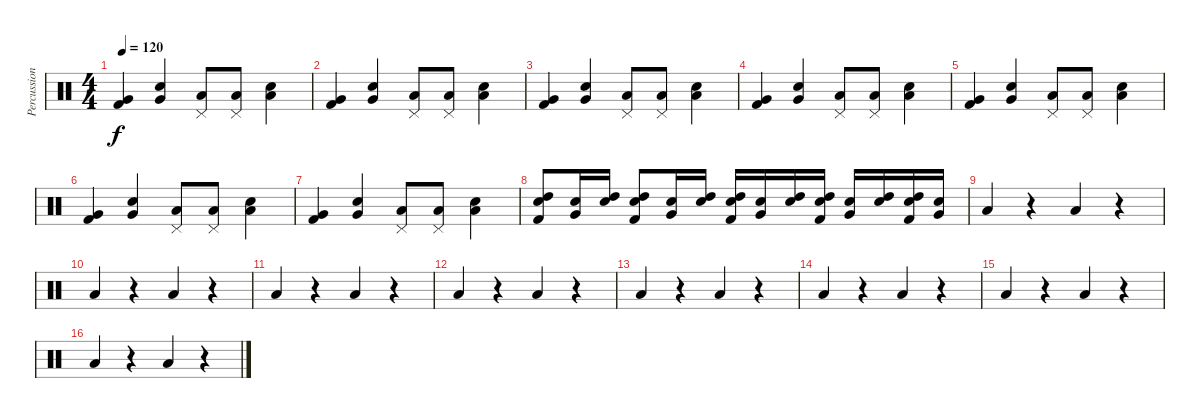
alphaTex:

\track ("Percussion" "Percussion") {instrument percussion}
\staff {score}
\articulation defaults
\ts (4 4)
\tempo 120
\clef neutral
\ks c
("Very Low Tom (hit)" "Kick (hit) 2").4{dy f} ("Very Low Tom (hit)" "Snare (hit) 2").4 ("Pedal Hi-Hat (hit)" "Low Tom (hit)").8 ("Pedal Hi-Hat (hit)" "Low Tom (hit)").8 ("Low Tom (hit)" "Snare (hit) 2").4 |
("Very Low Tom (hit)" "Kick (hit) 2").4 ("Very Low Tom (hit)" "Snare (hit) 2").4 ("Pedal Hi-Hat (hit)" "Low Tom (hit)").8 ("Pedal Hi-Hat (hit)" "Low Tom (hit)").8 ("Low Tom (hit)" "Snare (hit) 2").4 |
("Very Low Tom (hit)" "Kick (hit) 2").4 ("Very Low Tom (hit)" "Snare (hit) 2").4 ("Pedal Hi-Hat (hit)" "Low Tom (hit)").8 ("Pedal Hi-Hat (hit)" "Low Tom (hit)").8 ("Low Tom (hit)" "Snare (hit) 2").4 |
("Very Low Tom (hit)" "Kick (hit) 2").4 ("Very Low Tom (hit)" "Snare (hit) 2").4 ("Pedal Hi-Hat (hit)" "Low Tom (hit)").8 ("Pedal Hi-Hat (hit)" "Low Tom (hit)").8 ("Low Tom (hit)" "Snare (hit) 2").4 |
("Very Low Tom (hit)" "Kick (hit) 2").4 ("Very Low Tom (hit)" "Snare (hit) 2").4 ("Pedal Hi-Hat (hit)" "Low Tom (hit)").8 ("Pedal Hi-Hat (hit)" "Low Tom (hit)").8 ("Low Tom (hit)" "Snare (hit) 2").4 |
("Very Low Tom (hit)" "Kick (hit) 2").4 ("Very Low Tom (hit)" "Snare (hit) 2").4 ("Pedal Hi-Hat (hit)" "Low Tom (hit)").8 ("Pedal Hi-Hat (hit)" "Low Tom (hit)").8 ("Low Tom (hit)" "Snare (hit) 2").4 |
("Very Low Tom (hit)" "Kick (hit) 2").4 ("Very Low Tom (hit)" "Snare (hit) 2").4 ("Pedal Hi-Hat (hit)" "Low Tom (hit)").8 ("Pedal Hi-Hat (hit)" "Low Tom (hit)").8 ("Low Tom (hit)" "Snare (hit) 2").4 |
("High Tom (hit)" "Snare (hit) 2" "Kick (hit) 2").8 ("Very Low Tom (hit)" "Snare (hit) 2").16 ("High Tom (hit)" "Snare (hit) 2").16 ("High Tom (hit)" "Snare (hit) 2" "Kick (hit) 2").8 ("Very Low Tom (hit)" "Snare (hit) 2").16 ("High Tom (hit)" "Snare (hit) 2").16 ("High Tom (hit)" "Snare (hit) 2" "Kick (hit) 2").16 ("Very Low Tom (hit)" "Snare (hit) 2").16 ("High Tom (hit)" "Snare (hit) 2").16 ("High Tom (hit)" "Snare (hit) 2" "Kick (hit) 2").16 ("Very Low Tom (hit)" "Snare (hit) 2").16 ("High Tom (hit)" "Snare (hit) 2").16 ("High Tom (hit)" "Snare (hit) 2" "Kick (hit) 2").16 ("Very Low Tom (hit)" "Snare (hit) 2").16 |
"Low Tom (hit)".4 r.4 "Low Tom (hit)".4 r.4 |
"Low Tom (hit)".4 r.4 "Low Tom (hit)".4 r.4 |
"Low Tom (hit)".4 r.4 "Low Tom (hit)".4 r.4 |
"Low Tom (hit)".4 r.4 "Low Tom (hit)".4 r.4 |
"Low Tom (hit)".4 r.4 "Low Tom (hit)".4 r.4 |
"Low Tom (hit)".4 r.4 "Low Tom (hit)".4 r.4 |
"Low Tom (hit)".4 r.4 "Low Tom (hit)".4 r.4 |
"Low Tom (hit)".4 r.4 "Low Tom (hit)".4 r.4
